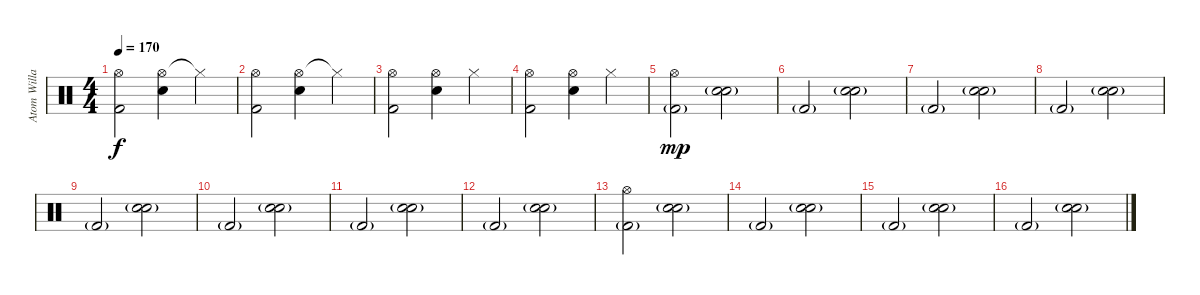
\track ("Atom Willard" "Atom Willa") {instrument percussion}
\staff {score}
\articulation defaults
\ts (4 4)
\tempo 170
\clef neutral
\ks c
("Hi-Hat (open)" "Kick (hit) 2").2{dy f} ("Hi-Hat (open)" "Electric Snare (hit)").4 "Hi-Hat (closed)"{t}.4 |
("Hi-Hat (open)" "Kick (hit) 2").2 ("Hi-Hat (open)" "Electric Snare (hit)").4 "Hi-Hat (closed)"{t}.4 |
("Hi-Hat (open)" "Kick (hit) 2").2 ("Hi-Hat (open)" "Electric Snare (hit)").4 "Hi-Hat (closed)".4 |
("Hi-Hat (open)" "Kick (hit) 2").2 ("Hi-Hat (open)" "Electric Snare (hit)").4 "Hi-Hat (closed)".4 |
("Hi-Hat (open)" "Kick (hit) 2"{g}).2{dy mp volume 11} ("Electric Snare (hit)"{g} "Snare (hit) 2"{g}).2 |
"Kick (hit) 2"{g}.2{volume 8} ("Electric Snare (hit)"{g} "Snare (hit) 2"{g}).2 |
"Kick (hit) 2"{g}.2{volume 8} ("Electric Snare (hit)"{g} "Snare (hit) 2"{g}).2 |
"Kick (hit) 2"{g}.2{volume 8} ("Electric Snare (hit)"{g} "Snare (hit) 2"{g}).2 |
"Kick (hit) 2"{g}.2{volume 11} ("Electric Snare (hit)"{g} "Snare (hit) 2"{g}).2 |
"Kick (hit) 2"{g}.2{volume 8} ("Electric Snare (hit)"{g} "Snare (hit) 2"{g}).2 |
"Kick (hit) 2"{g}.2{volume 8} ("Electric Snare (hit)"{g} "Snare (hit) 2"{g}).2 |
"Kick (hit) 2"{g}.2{volume 8} ("Electric Snare (hit)"{g} "Snare (hit) 2"{g}).2 |
("Hi-Hat (open)" "Kick (hit) 2"{g}).2{volume 11} ("Electric Snare (hit)"{g} "Snare (hit) 2"{g}).2 |
"Kick (hit) 2"{g}.2{volume 8} ("Electric Snare (hit)"{g} "Snare (hit) 2"{g}).2 |
"Kick (hit) 2"{g}.2{volume 8} ("Electric Snare (hit)"{g} "Snare (hit) 2"{g}).2 |
"Kick (hit) 2"{g}.2{volume 8} ("Electric Snare (hit)"{g} "Snare (hit) 2"{g}).2
